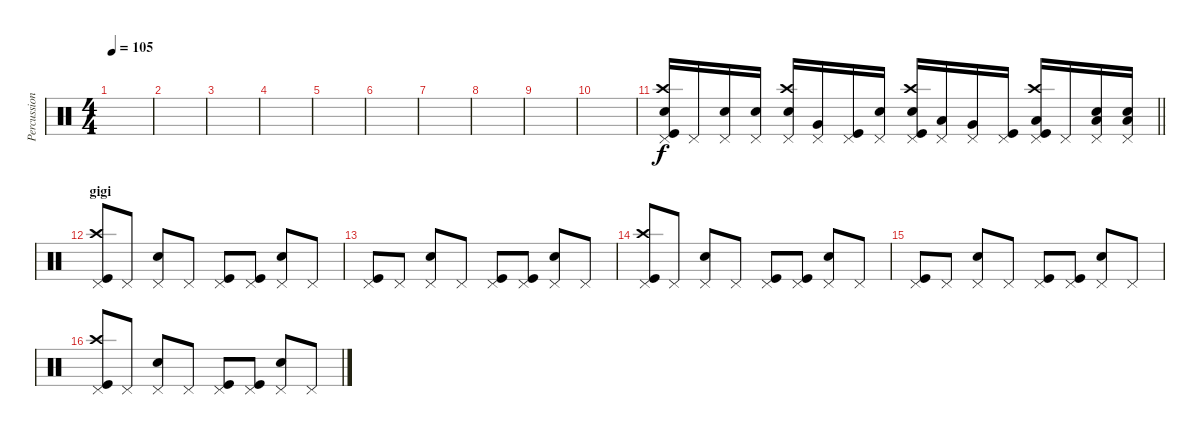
\track ("Percussion" "Percussion") {instrument percussion}
\staff {score}
\articulation defaults
\ts (4 4)
\tempo 105
\clef neutral
\ks c
|
|
|
|
|
|
|
|
|
|
\barLineRight lightlight
("Pedal Hi-Hat (hit)" "Crash high (hit)" "Snare (hit) 2" "Kick (hit)").16 "Pedal Hi-Hat (hit)".16 ("Pedal Hi-Hat (hit)" "Snare (hit) 2").16 ("Pedal Hi-Hat (hit)" "Electric Snare (hit)").16 ("Pedal Hi-Hat (hit)" "Crash high (hit)" "Snare (hit) 2").16 ("Pedal Hi-Hat (hit)" "Very Low Tom (hit)").16 ("Pedal Hi-Hat (hit)" "Kick (hit)").16 ("Pedal Hi-Hat (hit)" "Snare (hit) 2").16 ("Pedal Hi-Hat (hit)" "Crash high (hit)" "Electric Snare (hit)" "Kick (hit)").16 ("Pedal Hi-Hat (hit)" "Low Floor Tom (hit)").16 ("Pedal Hi-Hat (hit)" "Very Low Tom (hit)").16 ("Pedal Hi-Hat (hit)" "Kick (hit)").16 ("Pedal Hi-Hat (hit)" "Crash high (hit)" "Low Floor Tom (hit)" "Kick (hit)").16 "Pedal Hi-Hat (hit)".16 ("Pedal Hi-Hat (hit)" "Low Floor Tom (hit)" "Snare (hit) 2").16 ("Pedal Hi-Hat (hit)" "Low Floor Tom (hit)" "Snare (hit) 2").16 |
\section ("" "gigi")
("Pedal Hi-Hat (hit)" "Crash high (hit)" "Kick (hit)").8 "Pedal Hi-Hat (hit)".8 ("Pedal Hi-Hat (hit)" "Snare (hit) 2").8 "Pedal Hi-Hat (hit)".8 ("Pedal Hi-Hat (hit)" "Kick (hit)").8 ("Pedal Hi-Hat (hit)" "Kick (hit)").8 ("Pedal Hi-Hat (hit)" "Snare (hit) 2").8 "Pedal Hi-Hat (hit)".8 |
("Pedal Hi-Hat (hit)" "Kick (hit)").8 "Pedal Hi-Hat (hit)".8 ("Pedal Hi-Hat (hit)" "Snare (hit) 2").8 "Pedal Hi-Hat (hit)".8 ("Pedal Hi-Hat (hit)" "Kick (hit)").8 ("Pedal Hi-Hat (hit)" "Kick (hit)").8 ("Pedal Hi-Hat (hit)" "Snare (hit) 2").8 "Pedal Hi-Hat (hit)".8 |
("Pedal Hi-Hat (hit)" "Crash high (hit)" "Kick (hit)").8 "Pedal Hi-Hat (hit)".8 ("Pedal Hi-Hat (hit)" "Snare (hit) 2").8 "Pedal Hi-Hat (hit)".8 ("Pedal Hi-Hat (hit)" "Kick (hit)").8 ("Pedal Hi-Hat (hit)" "Kick (hit)").8 ("Pedal Hi-Hat (hit)" "Snare (hit) 2").8 "Pedal Hi-Hat (hit)".8 |
("Pedal Hi-Hat (hit)" "Kick (hit)").8 "Pedal Hi-Hat (hit)".8 ("Pedal Hi-Hat (hit)" "Snare (hit) 2").8 "Pedal Hi-Hat (hit)".8 ("Pedal Hi-Hat (hit)" "Kick (hit)").8 ("Pedal Hi-Hat (hit)" "Kick (hit)").8 ("Pedal Hi-Hat (hit)" "Snare (hit) 2").8 "Pedal Hi-Hat (hit)".8 |
("Pedal Hi-Hat (hit)" "Crash high (hit)" "Kick (hit)").8 "Pedal Hi-Hat (hit)".8 ("Pedal Hi-Hat (hit)" "Snare (hit) 2").8 "Pedal Hi-Hat (hit)".8 ("Pedal Hi-Hat (hit)" "Kick (hit)").8 ("Pedal Hi-Hat (hit)" "Kick (hit)").8 ("Pedal Hi-Hat (hit)" "Snare (hit) 2").8 "Pedal Hi-Hat (hit)".8
